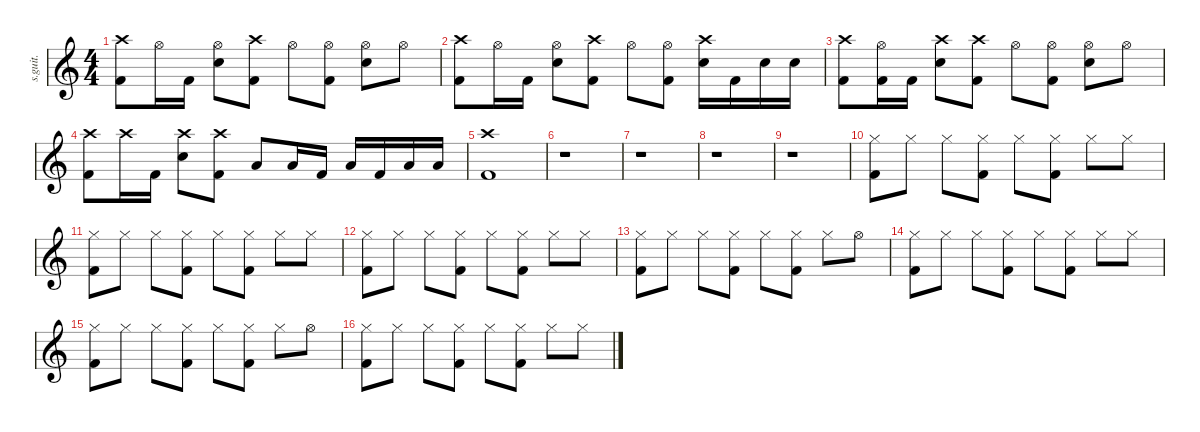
\defaultSystemsLayout 4
\hideDynamics
\bracketExtendMode nobrackets
\track ("" "s.guit.") {instrument percussion}
\staff {score}
\articulation defaults
\ts (4 4)
\tempo (95 hide)
\clef g2
\ks c
("Crash high (hit)" "Kick (hit) 2").8{dy f} "Hi-Hat (open)".16 "Kick (hit) 2".16 ("Hi-Hat (open)" "Snare (hit) 2").8 ("Crash high (hit)" "Kick (hit) 2").8 "Hi-Hat (open)".8 ("Hi-Hat (open)" "Kick (hit) 2").8 ("Hi-Hat (open)" "Snare (hit) 2").8 "Hi-Hat (open)".8 |
("Crash high (hit)" "Kick (hit) 2").8 "Hi-Hat (open)".16 "Kick (hit) 2".16 ("Hi-Hat (open)" "Snare (hit) 2").8 ("Crash high (hit)" "Kick (hit) 2").8 "Hi-Hat (open)".8 ("Hi-Hat (open)" "Kick (hit) 2").8 ("Crash high (hit)" "Snare (hit) 2").16 "Kick (hit) 2".16 "Snare (hit) 2".16 "Snare (hit) 2".16 |
("Crash high (hit)" "Kick (hit) 2").8 ("Hi-Hat (open)" "Kick (hit) 2").16 "Kick (hit) 2".16 ("Crash high (hit)" "Snare (hit) 2").8 ("Crash high (hit)" "Kick (hit) 2").8 "Hi-Hat (open)".8 ("Hi-Hat (open)" "Kick (hit) 2").8 ("Hi-Hat (open)" "Snare (hit) 2").8 "Hi-Hat (open)".8 |
("Crash high (hit)" "Kick (hit) 2").8 "Crash high (hit)".16 "Kick (hit) 2".16 ("Crash high (hit)" "Snare (hit) 2").8 ("Crash high (hit)" "Kick (hit) 2").8 "Low Tom (hit)".8 "Low Tom (hit)".16 "Kick (hit) 2".16 "Low Tom (hit)".16 "Kick (hit) 2".16 "Low Tom (hit)".16 "Low Tom (hit)".16 |
("Crash high (hit)" "Kick (hit) 2").1 |
r.1 |
r.1 |
r.1 |
r.1 |
("Hi-Hat (closed)" "Kick (hit) 2").8 "Hi-Hat (closed)".8 "Hi-Hat (closed)".8 ("Hi-Hat (closed)" "Kick (hit) 2").8 "Hi-Hat (closed)".8 ("Hi-Hat (closed)" "Kick (hit) 2").8 "Hi-Hat (closed)".8 "Hi-Hat (closed)".8 |
("Hi-Hat (closed)" "Kick (hit) 2").8 "Hi-Hat (closed)".8 "Hi-Hat (closed)".8 ("Hi-Hat (closed)" "Kick (hit) 2").8 "Hi-Hat (closed)".8 ("Hi-Hat (closed)" "Kick (hit) 2").8 "Hi-Hat (closed)".8 "Hi-Hat (closed)".8 |
("Hi-Hat (closed)" "Kick (hit) 2").8 "Hi-Hat (closed)".8 "Hi-Hat (closed)".8 ("Hi-Hat (closed)" "Kick (hit) 2").8 "Hi-Hat (closed)".8 ("Hi-Hat (closed)" "Kick (hit) 2").8 "Hi-Hat (closed)".8 "Hi-Hat (closed)".8 |
("Hi-Hat (closed)" "Kick (hit) 2").8 "Hi-Hat (closed)".8 "Hi-Hat (closed)".8 ("Hi-Hat (closed)" "Kick (hit) 2").8 "Hi-Hat (closed)".8 ("Hi-Hat (closed)" "Kick (hit) 2").8 "Hi-Hat (closed)".8 "Hi-Hat (open)".8 |
("Hi-Hat (closed)" "Kick (hit) 2").8 "Hi-Hat (closed)".8 "Hi-Hat (closed)".8 ("Hi-Hat (closed)" "Kick (hit) 2").8 "Hi-Hat (closed)".8 ("Hi-Hat (closed)" "Kick (hit) 2").8 "Hi-Hat (closed)".8 "Hi-Hat (closed)".8 |
("Hi-Hat (closed)" "Kick (hit) 2").8 "Hi-Hat (closed)".8 "Hi-Hat (closed)".8 ("Hi-Hat (closed)" "Kick (hit) 2").8 "Hi-Hat (closed)".8 ("Hi-Hat (closed)" "Kick (hit) 2").8 "Hi-Hat (closed)".8 "Hi-Hat (open)".8 |
("Hi-Hat (closed)" "Kick (hit) 2").8 "Hi-Hat (closed)".8 "Hi-Hat (closed)".8 ("Hi-Hat (closed)" "Kick (hit) 2").8 "Hi-Hat (closed)".8 ("Hi-Hat (closed)" "Kick (hit) 2").8 "Hi-Hat (closed)".8 "Hi-Hat (closed)".8
